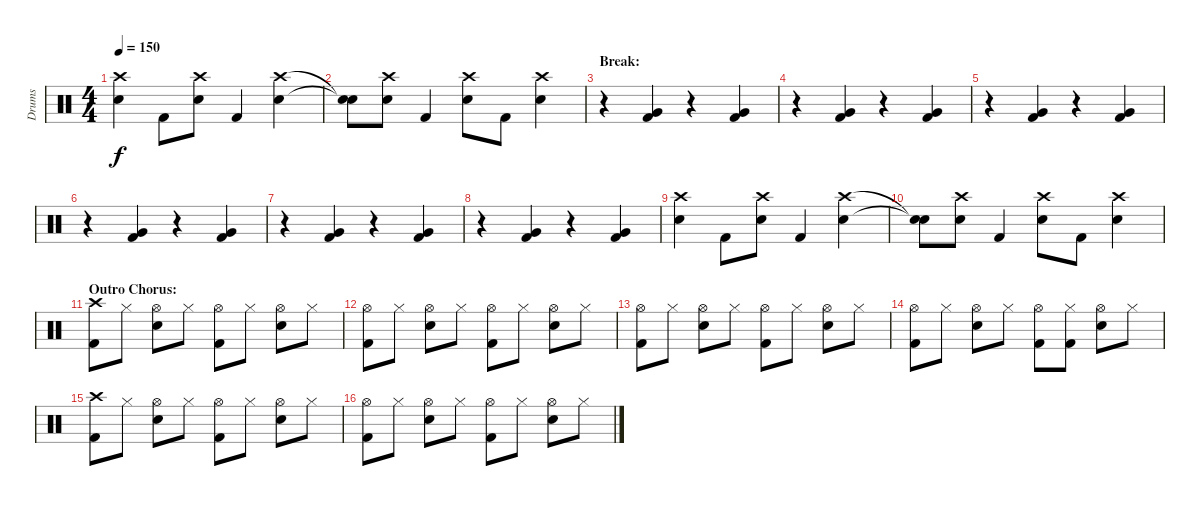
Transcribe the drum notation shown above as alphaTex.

\track ("Drums" "Drums") {instrument percussion}
\staff {score}
\articulation defaults
\ts (4 4)
\tempo 150
\clef neutral
\ks c
("Crash high (hit)" "Snare (hit) 2").4{dy f} "Kick (hit) 2".8 ("Crash high (hit)" "Snare (hit) 2").8 "Kick (hit) 2".4 ("Crash high (hit)" "Snare (hit) 2").4 |
("Snare (hit)"{t} "Snare (hit)"{t}).8 ("Crash high (hit)" "Snare (hit) 2").8 "Kick (hit) 2".4 ("Crash high (hit)" "Snare (hit) 2").8 "Kick (hit) 2".8 ("Crash high (hit)" "Snare (hit) 2").4 |
\section ("" "Break:")
r.4 ("Very Low Tom (hit)" "Kick (hit) 2").4 r.4 ("Very Low Tom (hit)" "Kick (hit) 2").4 |
r.4 ("Very Low Tom (hit)" "Kick (hit) 2").4 r.4 ("Very Low Tom (hit)" "Kick (hit) 2").4 |
r.4 ("Very Low Tom (hit)" "Kick (hit) 2").4 r.4 ("Very Low Tom (hit)" "Kick (hit) 2").4 |
r.4 ("Very Low Tom (hit)" "Kick (hit) 2").4 r.4 ("Very Low Tom (hit)" "Kick (hit) 2").4 |
r.4 ("Very Low Tom (hit)" "Kick (hit) 2").4 r.4 ("Very Low Tom (hit)" "Kick (hit) 2").4 |
r.4 ("Very Low Tom (hit)" "Kick (hit) 2").4 r.4 ("Very Low Tom (hit)" "Kick (hit) 2").4 |
("Crash high (hit)" "Snare (hit) 2").4 "Kick (hit) 2".8 ("Crash high (hit)" "Snare (hit) 2").8 "Kick (hit) 2".4 ("Crash high (hit)" "Snare (hit) 2").4 |
("Snare (hit)"{t} "Snare (hit)"{t}).8 ("Crash high (hit)" "Snare (hit) 2").8 "Kick (hit) 2".4 ("Crash high (hit)" "Snare (hit) 2").8 "Kick (hit) 2".8 ("Crash high (hit)" "Snare (hit) 2").4 |
\section ("" "Outro Chorus:")
("Crash high (hit)" "Kick (hit) 2").8 "Hi-Hat (closed)".8 ("Hi-Hat (open)" "Snare (hit) 2").8 "Hi-Hat (closed)".8 ("Hi-Hat (open)" "Kick (hit) 2").8 "Hi-Hat (closed)".8 ("Hi-Hat (open)" "Snare (hit) 2").8 "Hi-Hat (closed)".8 |
("Hi-Hat (open)" "Kick (hit) 2").8 "Hi-Hat (closed)".8 ("Hi-Hat (open)" "Snare (hit) 2").8 "Hi-Hat (closed)".8 ("Hi-Hat (open)" "Kick (hit) 2").8 "Hi-Hat (closed)".8 ("Hi-Hat (open)" "Snare (hit) 2").8 "Hi-Hat (closed)".8 |
("Hi-Hat (open)" "Kick (hit) 2").8 "Hi-Hat (closed)".8 ("Hi-Hat (open)" "Snare (hit) 2").8 "Hi-Hat (closed)".8 ("Hi-Hat (open)" "Kick (hit) 2").8 "Hi-Hat (closed)".8 ("Hi-Hat (open)" "Snare (hit) 2").8 "Hi-Hat (closed)".8 |
("Hi-Hat (open)" "Kick (hit) 2").8 "Hi-Hat (closed)".8 ("Hi-Hat (open)" "Snare (hit) 2").8 "Hi-Hat (closed)".8 ("Hi-Hat (open)" "Kick (hit) 2").8 ("Hi-Hat (closed)" "Kick (hit) 2").8 ("Hi-Hat (open)" "Snare (hit) 2").8 "Hi-Hat (closed)".8 |
("Crash high (hit)" "Kick (hit) 2").8 "Hi-Hat (closed)".8 ("Hi-Hat (open)" "Snare (hit) 2").8 "Hi-Hat (closed)".8 ("Hi-Hat (open)" "Kick (hit) 2").8 "Hi-Hat (closed)".8 ("Hi-Hat (open)" "Snare (hit) 2").8 "Hi-Hat (closed)".8 |
("Hi-Hat (open)" "Kick (hit) 2").8 "Hi-Hat (closed)".8 ("Hi-Hat (open)" "Snare (hit) 2").8 "Hi-Hat (closed)".8 ("Hi-Hat (open)" "Kick (hit) 2").8 "Hi-Hat (closed)".8 ("Hi-Hat (open)" "Snare (hit) 2").8 "Hi-Hat (closed)".8
